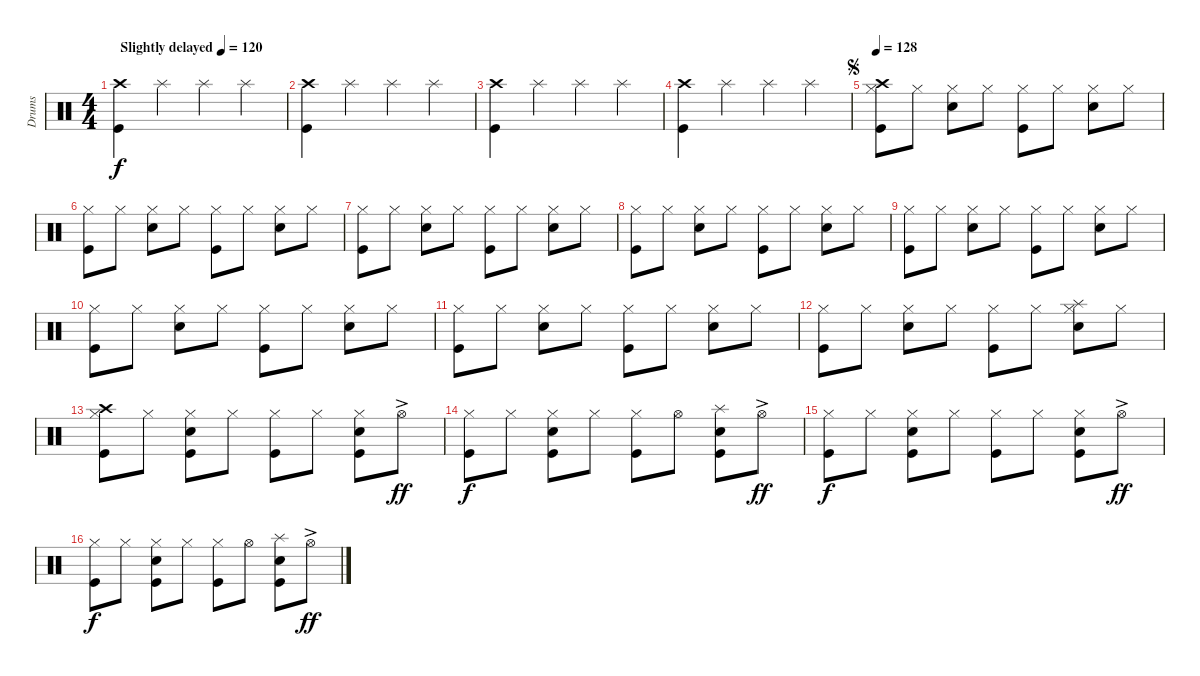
\track ("Drums" "Drums") {instrument percussion}
\staff {score}
\articulation defaults
\ts (4 4)
\tempo (120 "Slightly delayed")
\clef neutral
\ks c
("Crash high (hit)" "Kick (hit)").4{dy f} "Splash (hit)".4 "Splash (hit)".4 "Splash (hit)".4 |
("Crash high (hit)" "Kick (hit)").4 "Splash (hit)".4 "Splash (hit)".4 "Splash (hit)".4 |
("Crash high (hit)" "Kick (hit)").4 "Splash (hit)".4 "Splash (hit)".4 "Splash (hit)".4 |
("Crash high (hit)" "Kick (hit)").4 "Splash (hit)".4 "Splash (hit)".4 "Splash (hit)".4 |
\jump segno
\tempo 128
("Crash high (hit)" "Hi-Hat (closed)" "Kick (hit)").8 "Hi-Hat (closed)".8 ("Hi-Hat (closed)" "Electric Snare (hit)").8 "Hi-Hat (closed)".8 ("Hi-Hat (closed)" "Kick (hit)").8 "Hi-Hat (closed)".8 ("Hi-Hat (closed)" "Electric Snare (hit)").8 "Hi-Hat (closed)".8 |
("Hi-Hat (closed)" "Kick (hit)").8 "Hi-Hat (closed)".8 ("Hi-Hat (closed)" "Electric Snare (hit)").8 "Hi-Hat (closed)".8 ("Hi-Hat (closed)" "Kick (hit)").8 "Hi-Hat (closed)".8 ("Hi-Hat (closed)" "Electric Snare (hit)").8 "Hi-Hat (closed)".8 |
("Hi-Hat (closed)" "Kick (hit)").8 "Hi-Hat (closed)".8 ("Hi-Hat (closed)" "Electric Snare (hit)").8 "Hi-Hat (closed)".8 ("Hi-Hat (closed)" "Kick (hit)").8 "Hi-Hat (closed)".8 ("Hi-Hat (closed)" "Electric Snare (hit)").8 "Hi-Hat (closed)".8 |
("Hi-Hat (closed)" "Kick (hit)").8 "Hi-Hat (closed)".8 ("Hi-Hat (closed)" "Electric Snare (hit)").8 "Hi-Hat (closed)".8 ("Hi-Hat (closed)" "Kick (hit)").8 "Hi-Hat (closed)".8 ("Hi-Hat (closed)" "Electric Snare (hit)").8 "Hi-Hat (closed)".8 |
("Hi-Hat (closed)" "Kick (hit)").8 "Hi-Hat (closed)".8 ("Hi-Hat (closed)" "Electric Snare (hit)").8 "Hi-Hat (closed)".8 ("Hi-Hat (closed)" "Kick (hit)").8 "Hi-Hat (closed)".8 ("Hi-Hat (closed)" "Electric Snare (hit)").8 "Hi-Hat (closed)".8 |
("Hi-Hat (closed)" "Kick (hit)").8 "Hi-Hat (closed)".8 ("Hi-Hat (closed)" "Electric Snare (hit)").8 "Hi-Hat (closed)".8 ("Hi-Hat (closed)" "Kick (hit)").8 "Hi-Hat (closed)".8 ("Hi-Hat (closed)" "Electric Snare (hit)").8 "Hi-Hat (closed)".8 |
("Hi-Hat (closed)" "Kick (hit)").8 "Hi-Hat (closed)".8 ("Hi-Hat (closed)" "Electric Snare (hit)").8 "Hi-Hat (closed)".8 ("Hi-Hat (closed)" "Kick (hit)").8 "Hi-Hat (closed)".8 ("Hi-Hat (closed)" "Electric Snare (hit)").8 "Hi-Hat (closed)".8 |
("Hi-Hat (closed)" "Kick (hit)").8 "Hi-Hat (closed)".8 ("Hi-Hat (closed)" "Electric Snare (hit)").8 "Hi-Hat (closed)".8 ("Hi-Hat (closed)" "Kick (hit)").8 "Hi-Hat (closed)".8 ("Splash (hit)" "Hi-Hat (closed)" "Electric Snare (hit)").8 "Hi-Hat (closed)".8 |
("Crash high (hit)" "Hi-Hat (closed)" "Kick (hit)").8 "Hi-Hat (closed)".8 ("Hi-Hat (closed)" "Electric Snare (hit)" "Kick (hit)").8 "Hi-Hat (closed)".8 ("Hi-Hat (closed)" "Kick (hit)").8 "Hi-Hat (closed)".8 ("Hi-Hat (closed)" "Electric Snare (hit)" "Kick (hit)").8 "Hi-Hat (open)"{ac}.8{dy ff} |
("Hi-Hat (closed)" "Kick (hit)").8{dy f} "Hi-Hat (closed)".8 ("Hi-Hat (closed)" "Electric Snare (hit)" "Kick (hit)").8 "Hi-Hat (closed)".8 ("Hi-Hat (closed)" "Kick (hit)").8 "Hi-Hat (open)".8 ("Splash (hit)" "Electric Snare (hit)" "Kick (hit)").8 "Hi-Hat (open)"{ac}.8{dy ff} |
("Hi-Hat (closed)" "Kick (hit)").8{dy f} "Hi-Hat (closed)".8 ("Hi-Hat (closed)" "Electric Snare (hit)" "Kick (hit)").8 "Hi-Hat (closed)".8 ("Hi-Hat (closed)" "Kick (hit)").8 "Hi-Hat (closed)".8 ("Hi-Hat (closed)" "Electric Snare (hit)" "Kick (hit)").8 "Hi-Hat (open)"{ac}.8{dy ff} |
("Hi-Hat (closed)" "Kick (hit)").8{dy f} "Hi-Hat (closed)".8 ("Hi-Hat (closed)" "Electric Snare (hit)" "Kick (hit)").8 "Hi-Hat (closed)".8 ("Hi-Hat (closed)" "Kick (hit)").8 "Hi-Hat (open)".8 ("Splash (hit)" "Electric Snare (hit)" "Kick (hit)").8 "Hi-Hat (open)"{ac}.8{dy ff}
